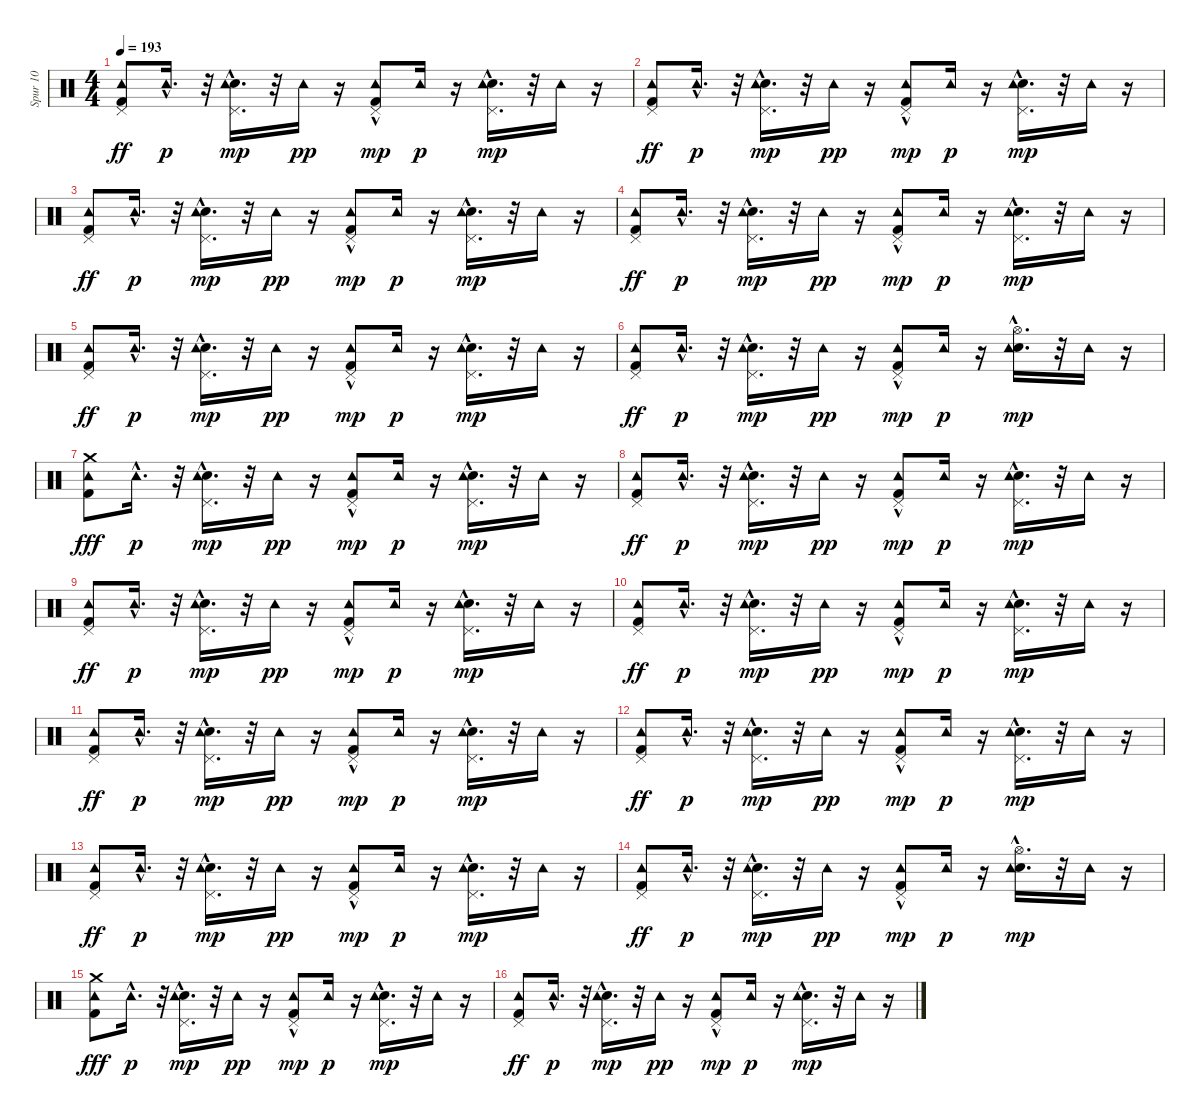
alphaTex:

\track ("Spur 10" "Spur 10") {instrument percussion}
\staff {score}
\articulation defaults
\ts (4 4)
\tempo 193
\clef neutral
\ks c
("Tambourine (hit)" "Kick (hit) 2" "Pedal Hi-Hat (hit)").8{dy ff} "Tambourine (hit)"{hac}.16{d dy p} r.32 ("Pedal Hi-Hat (hit)" "Snare (hit) 2"{hac} "Tambourine (hit)").16{d dy mp} r.32 "Tambourine (hit)".16{dy pp} r.16 ("Kick (hit) 2" "Pedal Hi-Hat (hit)" "Tambourine (hit)"{hac}).8{dy mp} "Tambourine (hit)".16{dy p} r.16 ("Snare (hit) 2"{hac} "Pedal Hi-Hat (hit)"{hac} "Tambourine (hit)").16{d dy mp} r.32 "Tambourine (hit)".16 r.16 |
("Tambourine (hit)" "Kick (hit) 2" "Pedal Hi-Hat (hit)").8{dy ff} "Tambourine (hit)"{hac}.16{d dy p} r.32 ("Pedal Hi-Hat (hit)" "Snare (hit) 2"{hac} "Tambourine (hit)").16{d dy mp} r.32 "Tambourine (hit)".16{dy pp} r.16 ("Kick (hit) 2" "Pedal Hi-Hat (hit)" "Tambourine (hit)"{hac}).8{dy mp} "Tambourine (hit)".16{dy p} r.16 ("Snare (hit) 2"{hac} "Pedal Hi-Hat (hit)"{hac} "Tambourine (hit)").16{d dy mp} r.32 "Tambourine (hit)".16 r.16 |
("Tambourine (hit)" "Kick (hit) 2" "Pedal Hi-Hat (hit)").8{dy ff} "Tambourine (hit)"{hac}.16{d dy p} r.32 ("Pedal Hi-Hat (hit)" "Snare (hit) 2"{hac} "Tambourine (hit)").16{d dy mp} r.32 "Tambourine (hit)".16{dy pp} r.16 ("Kick (hit) 2" "Pedal Hi-Hat (hit)" "Tambourine (hit)"{hac}).8{dy mp} "Tambourine (hit)".16{dy p} r.16 ("Snare (hit) 2"{hac} "Pedal Hi-Hat (hit)"{hac} "Tambourine (hit)").16{d dy mp} r.32 "Tambourine (hit)".16 r.16 |
("Tambourine (hit)" "Kick (hit) 2" "Pedal Hi-Hat (hit)").8{dy ff} "Tambourine (hit)"{hac}.16{d dy p} r.32 ("Pedal Hi-Hat (hit)" "Snare (hit) 2"{hac} "Tambourine (hit)").16{d dy mp} r.32 "Tambourine (hit)".16{dy pp} r.16 ("Kick (hit) 2" "Pedal Hi-Hat (hit)" "Tambourine (hit)"{hac}).8{dy mp} "Tambourine (hit)".16{dy p} r.16 ("Snare (hit) 2"{hac} "Pedal Hi-Hat (hit)"{hac} "Tambourine (hit)").16{d dy mp} r.32 "Tambourine (hit)".16 r.16 |
("Tambourine (hit)" "Kick (hit) 2" "Pedal Hi-Hat (hit)").8{dy ff} "Tambourine (hit)"{hac}.16{d dy p} r.32 ("Pedal Hi-Hat (hit)" "Snare (hit) 2"{hac} "Tambourine (hit)").16{d dy mp} r.32 "Tambourine (hit)".16{dy pp} r.16 ("Kick (hit) 2" "Pedal Hi-Hat (hit)" "Tambourine (hit)"{hac}).8{dy mp} "Tambourine (hit)".16{dy p} r.16 ("Snare (hit) 2"{hac} "Pedal Hi-Hat (hit)"{hac} "Tambourine (hit)").16{d dy mp} r.32 "Tambourine (hit)".16 r.16 |
("Tambourine (hit)" "Kick (hit) 2" "Pedal Hi-Hat (hit)").8{dy ff} "Tambourine (hit)"{hac}.16{d dy p} r.32 ("Pedal Hi-Hat (hit)" "Snare (hit) 2"{hac} "Tambourine (hit)").16{d dy mp} r.32 "Tambourine (hit)".16{dy pp} r.16 ("Kick (hit) 2" "Pedal Hi-Hat (hit)" "Tambourine (hit)"{hac}).8{dy mp} "Tambourine (hit)".16{dy p} r.16 ("Snare (hit) 2"{hac} "Hi-Hat (open)"{hac} "Tambourine (hit)").16{d dy mp} r.32 "Tambourine (hit)".16 r.16 |
("Tambourine (hit)" "Kick (hit) 2" "Crash medium (hit)").8{dy fff} "Tambourine (hit)"{hac}.16{d dy p} r.32 ("Pedal Hi-Hat (hit)" "Snare (hit) 2"{hac} "Tambourine (hit)").16{d dy mp} r.32 "Tambourine (hit)".16{dy pp} r.16 ("Kick (hit) 2" "Pedal Hi-Hat (hit)" "Tambourine (hit)"{hac}).8{dy mp} "Tambourine (hit)".16{dy p} r.16 ("Snare (hit) 2"{hac} "Pedal Hi-Hat (hit)"{hac} "Tambourine (hit)").16{d dy mp} r.32 "Tambourine (hit)".16 r.16 |
("Tambourine (hit)" "Kick (hit) 2" "Pedal Hi-Hat (hit)").8{dy ff} "Tambourine (hit)"{hac}.16{d dy p} r.32 ("Pedal Hi-Hat (hit)" "Snare (hit) 2"{hac} "Tambourine (hit)").16{d dy mp} r.32 "Tambourine (hit)".16{dy pp} r.16 ("Kick (hit) 2" "Pedal Hi-Hat (hit)" "Tambourine (hit)"{hac}).8{dy mp} "Tambourine (hit)".16{dy p} r.16 ("Snare (hit) 2"{hac} "Pedal Hi-Hat (hit)"{hac} "Tambourine (hit)").16{d dy mp} r.32 "Tambourine (hit)".16 r.16 |
("Tambourine (hit)" "Kick (hit) 2" "Pedal Hi-Hat (hit)").8{dy ff} "Tambourine (hit)"{hac}.16{d dy p} r.32 ("Pedal Hi-Hat (hit)" "Snare (hit) 2"{hac} "Tambourine (hit)").16{d dy mp} r.32 "Tambourine (hit)".16{dy pp} r.16 ("Kick (hit) 2" "Pedal Hi-Hat (hit)" "Tambourine (hit)"{hac}).8{dy mp} "Tambourine (hit)".16{dy p} r.16 ("Snare (hit) 2"{hac} "Pedal Hi-Hat (hit)"{hac} "Tambourine (hit)").16{d dy mp} r.32 "Tambourine (hit)".16 r.16 |
("Tambourine (hit)" "Kick (hit) 2" "Pedal Hi-Hat (hit)").8{dy ff} "Tambourine (hit)"{hac}.16{d dy p} r.32 ("Pedal Hi-Hat (hit)" "Snare (hit) 2"{hac} "Tambourine (hit)").16{d dy mp} r.32 "Tambourine (hit)".16{dy pp} r.16 ("Kick (hit) 2" "Pedal Hi-Hat (hit)" "Tambourine (hit)"{hac}).8{dy mp} "Tambourine (hit)".16{dy p} r.16 ("Snare (hit) 2"{hac} "Pedal Hi-Hat (hit)"{hac} "Tambourine (hit)").16{d dy mp} r.32 "Tambourine (hit)".16 r.16 |
("Tambourine (hit)" "Kick (hit) 2" "Pedal Hi-Hat (hit)").8{dy ff} "Tambourine (hit)"{hac}.16{d dy p} r.32 ("Pedal Hi-Hat (hit)" "Snare (hit) 2"{hac} "Tambourine (hit)").16{d dy mp} r.32 "Tambourine (hit)".16{dy pp} r.16 ("Kick (hit) 2" "Pedal Hi-Hat (hit)" "Tambourine (hit)"{hac}).8{dy mp} "Tambourine (hit)".16{dy p} r.16 ("Snare (hit) 2"{hac} "Pedal Hi-Hat (hit)"{hac} "Tambourine (hit)").16{d dy mp} r.32 "Tambourine (hit)".16 r.16 |
("Tambourine (hit)" "Kick (hit) 2" "Pedal Hi-Hat (hit)").8{dy ff} "Tambourine (hit)"{hac}.16{d dy p} r.32 ("Pedal Hi-Hat (hit)" "Snare (hit) 2"{hac} "Tambourine (hit)").16{d dy mp} r.32 "Tambourine (hit)".16{dy pp} r.16 ("Kick (hit) 2" "Pedal Hi-Hat (hit)" "Tambourine (hit)"{hac}).8{dy mp} "Tambourine (hit)".16{dy p} r.16 ("Snare (hit) 2"{hac} "Pedal Hi-Hat (hit)"{hac} "Tambourine (hit)").16{d dy mp} r.32 "Tambourine (hit)".16 r.16 |
("Tambourine (hit)" "Kick (hit) 2" "Pedal Hi-Hat (hit)").8{dy ff} "Tambourine (hit)"{hac}.16{d dy p} r.32 ("Pedal Hi-Hat (hit)" "Snare (hit) 2"{hac} "Tambourine (hit)").16{d dy mp} r.32 "Tambourine (hit)".16{dy pp} r.16 ("Kick (hit) 2" "Pedal Hi-Hat (hit)" "Tambourine (hit)"{hac}).8{dy mp} "Tambourine (hit)".16{dy p} r.16 ("Snare (hit) 2"{hac} "Pedal Hi-Hat (hit)"{hac} "Tambourine (hit)").16{d dy mp} r.32 "Tambourine (hit)".16 r.16 |
("Tambourine (hit)" "Kick (hit) 2" "Pedal Hi-Hat (hit)").8{dy ff} "Tambourine (hit)"{hac}.16{d dy p} r.32 ("Pedal Hi-Hat (hit)" "Snare (hit) 2"{hac} "Tambourine (hit)").16{d dy mp} r.32 "Tambourine (hit)".16{dy pp} r.16 ("Kick (hit) 2" "Pedal Hi-Hat (hit)" "Tambourine (hit)"{hac}).8{dy mp} "Tambourine (hit)".16{dy p} r.16 ("Snare (hit) 2"{hac} "Hi-Hat (open)"{hac} "Tambourine (hit)").16{d dy mp} r.32 "Tambourine (hit)".16 r.16 |
("Tambourine (hit)" "Kick (hit) 2" "Crash medium (hit)").8{dy fff} "Tambourine (hit)"{hac}.16{d dy p} r.32 ("Pedal Hi-Hat (hit)" "Snare (hit) 2"{hac} "Tambourine (hit)").16{d dy mp} r.32 "Tambourine (hit)".16{dy pp} r.16 ("Kick (hit) 2" "Pedal Hi-Hat (hit)" "Tambourine (hit)"{hac}).8{dy mp} "Tambourine (hit)".16{dy p} r.16 ("Snare (hit) 2"{hac} "Pedal Hi-Hat (hit)"{hac} "Tambourine (hit)").16{d dy mp} r.32 "Tambourine (hit)".16 r.16 |
("Tambourine (hit)" "Kick (hit) 2" "Pedal Hi-Hat (hit)").8{dy ff} "Tambourine (hit)"{hac}.16{d dy p} r.32 ("Pedal Hi-Hat (hit)" "Snare (hit) 2"{hac} "Tambourine (hit)").16{d dy mp} r.32 "Tambourine (hit)".16{dy pp} r.16 ("Kick (hit) 2" "Pedal Hi-Hat (hit)" "Tambourine (hit)"{hac}).8{dy mp} "Tambourine (hit)".16{dy p} r.16 ("Snare (hit) 2"{hac} "Pedal Hi-Hat (hit)"{hac} "Tambourine (hit)").16{d dy mp} r.32 "Tambourine (hit)".16 r.16
